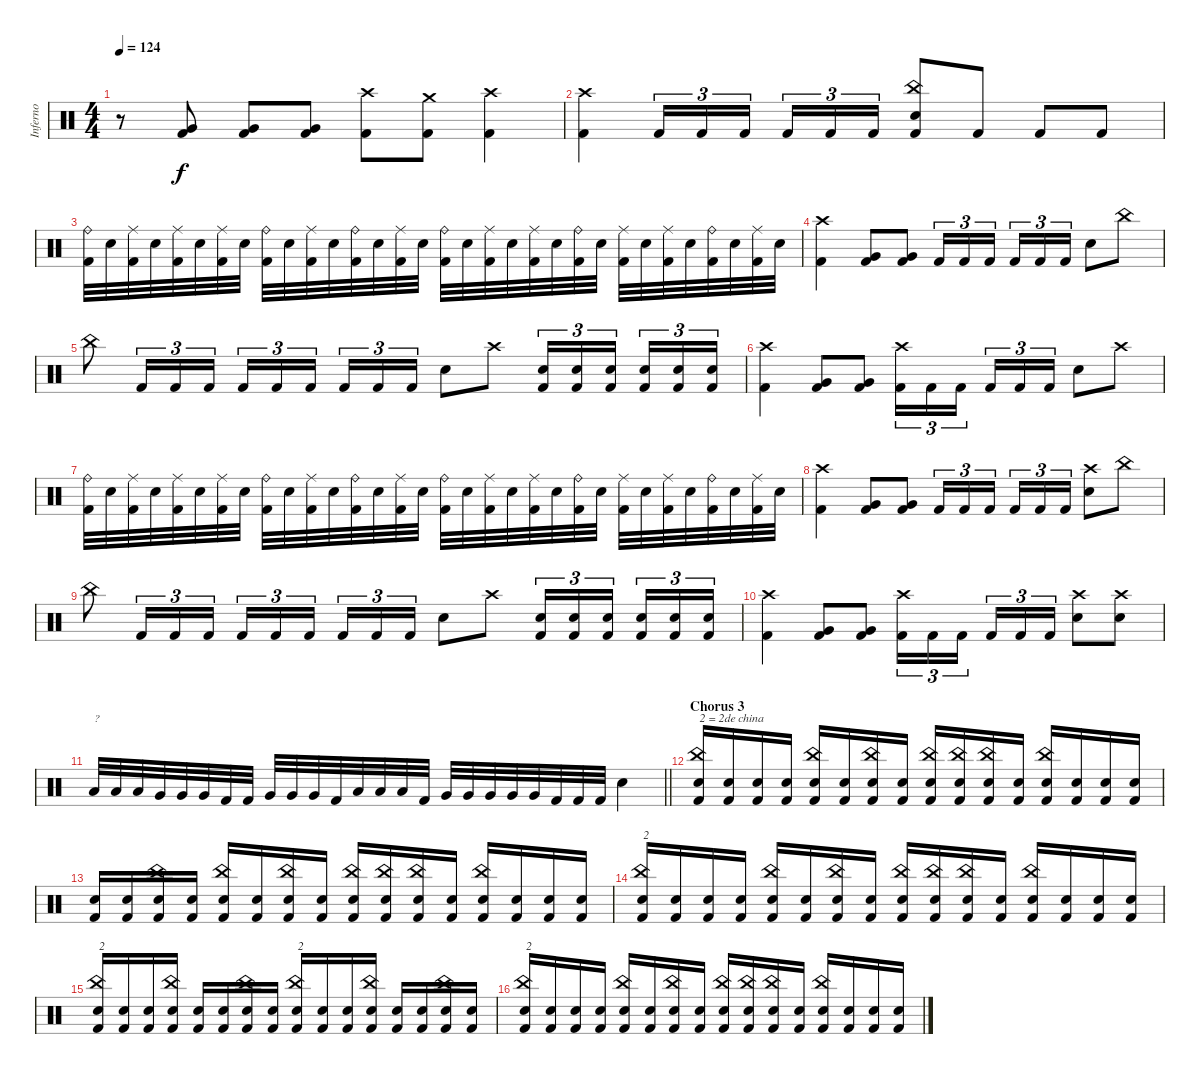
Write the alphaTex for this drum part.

\track ("Inferno" "Inferno") {instrument percussion}
\staff {score}
\articulation defaults
\ts (4 4)
\tempo 124
\clef neutral
\ks c
r.8{dy f} ("Very Low Tom (hit)" "Kick (hit) 2").8 ("Very Low Tom (hit)" "Kick (hit) 2").8 ("Very Low Tom (hit)" "Kick (hit) 2").8 ("Crash high (hit)" "Kick (hit) 2").8 ("Crash medium (hit)" "Kick (hit) 2").8 ("Crash high (hit)" "Kick (hit) 2").4 |
("Crash high (hit)" "Kick (hit) 2").4 "Kick (hit) 2".16{tu (3 2)} "Kick (hit) 2".16{tu (3 2)} "Kick (hit) 2".16{tu (3 2) beam splitsecondary} "Kick (hit) 2".16{tu (3 2)} "Kick (hit) 2".16{tu (3 2)} "Kick (hit) 2".16{tu (3 2)} ("China (hit)" "Electric Snare (hit)" "Kick (hit) 2").8 "Kick (hit) 2".8 "Kick (hit) 2".8 "Kick (hit) 2".8 |
("Ride (bell)" "Kick (hit) 2").32 "Electric Snare (hit)".32 ("Ride (middle)" "Kick (hit) 2").32 "Electric Snare (hit)".32 ("Ride (middle)" "Kick (hit) 2").32 "Electric Snare (hit)".32 ("Ride (middle)" "Kick (hit) 2").32 "Electric Snare (hit)".32 ("Ride (bell)" "Kick (hit) 2").32 "Electric Snare (hit)".32 ("Ride (middle)" "Kick (hit) 2").32 "Electric Snare (hit)".32 ("Ride (bell)" "Kick (hit) 2").32 "Electric Snare (hit)".32 ("Ride (middle)" "Kick (hit) 2").32 "Electric Snare (hit)".32 ("Ride (bell)" "Kick (hit) 2").32 "Electric Snare (hit)".32 ("Ride (middle)" "Kick (hit) 2").32 "Electric Snare (hit)".32 ("Ride (middle)" "Kick (hit) 2").32 "Electric Snare (hit)".32 ("Ride (bell)" "Kick (hit) 2").32 "Electric Snare (hit)".32 ("Ride (middle)" "Kick (hit) 2").32 "Electric Snare (hit)".32 ("Ride (middle)" "Kick (hit) 2").32 "Electric Snare (hit)".32 ("Ride (bell)" "Kick (hit) 2").32 "Electric Snare (hit)".32 ("Ride (middle)" "Kick (hit) 2").32 "Electric Snare (hit)".32 |
("Crash high (hit)" "Kick (hit) 2").4 ("Very Low Tom (hit)" "Kick (hit) 2").8 ("Very Low Tom (hit)" "Kick (hit) 2").8 "Kick (hit) 2".16{tu (3 2)} "Kick (hit) 2".16{tu (3 2)} "Kick (hit) 2".16{tu (3 2) beam splitsecondary} "Kick (hit) 2".16{tu (3 2)} "Kick (hit) 2".16{tu (3 2)} "Kick (hit) 2".16{tu (3 2)} "Electric Snare (hit)".8 "China (hit)".8 |
"China (hit)".8 "Kick (hit) 2".16{tu (3 2)} "Kick (hit) 2".16{tu (3 2)} "Kick (hit) 2".16{tu (3 2)} "Kick (hit) 2".16{tu (3 2)} "Kick (hit) 2".16{tu (3 2)} "Kick (hit) 2".16{tu (3 2) beam splitsecondary} "Kick (hit) 2".16{tu (3 2)} "Kick (hit) 2".16{tu (3 2)} "Kick (hit) 2".16{tu (3 2)} "Electric Snare (hit)".8 "Crash high (hit)".8 ("Electric Snare (hit)" "Kick (hit) 2").16{tu (3 2)} ("Electric Snare (hit)" "Kick (hit) 2").16{tu (3 2)} ("Electric Snare (hit)" "Kick (hit) 2").16{tu (3 2) beam splitsecondary} ("Electric Snare (hit)" "Kick (hit) 2").16{tu (3 2)} ("Electric Snare (hit)" "Kick (hit) 2").16{tu (3 2)} ("Electric Snare (hit)" "Kick (hit) 2").16{tu (3 2)} |
("Crash high (hit)" "Kick (hit) 2").4 ("Very Low Tom (hit)" "Kick (hit) 2").8 ("Very Low Tom (hit)" "Kick (hit) 2").8 ("Crash high (hit)" "Kick (hit) 2").16{tu (3 2)} "Kick (hit) 2".16{tu (3 2)} "Kick (hit) 2".16{tu (3 2) beam splitsecondary} "Kick (hit) 2".16{tu (3 2)} "Kick (hit) 2".16{tu (3 2)} "Kick (hit) 2".16{tu (3 2)} "Electric Snare (hit)".8 "Crash high (hit)".8 |
("Ride (bell)" "Kick (hit) 2").32 "Electric Snare (hit)".32 ("Ride (middle)" "Kick (hit) 2").32 "Electric Snare (hit)".32 ("Ride (middle)" "Kick (hit) 2").32 "Electric Snare (hit)".32 ("Ride (middle)" "Kick (hit) 2").32 "Electric Snare (hit)".32 ("Ride (bell)" "Kick (hit) 2").32 "Electric Snare (hit)".32 ("Ride (middle)" "Kick (hit) 2").32 "Electric Snare (hit)".32 ("Ride (bell)" "Kick (hit) 2").32 "Electric Snare (hit)".32 ("Ride (middle)" "Kick (hit) 2").32 "Electric Snare (hit)".32 ("Ride (bell)" "Kick (hit) 2").32 "Electric Snare (hit)".32 ("Ride (middle)" "Kick (hit) 2").32 "Electric Snare (hit)".32 ("Ride (middle)" "Kick (hit) 2").32 "Electric Snare (hit)".32 ("Ride (bell)" "Kick (hit) 2").32 "Electric Snare (hit)".32 ("Ride (middle)" "Kick (hit) 2").32 "Electric Snare (hit)".32 ("Ride (middle)" "Kick (hit) 2").32 "Electric Snare (hit)".32 ("Ride (bell)" "Kick (hit) 2").32 "Electric Snare (hit)".32 ("Ride (middle)" "Kick (hit) 2").32 "Electric Snare (hit)".32 |
("Crash high (hit)" "Kick (hit) 2").4 ("Very Low Tom (hit)" "Kick (hit) 2").8 ("Very Low Tom (hit)" "Kick (hit) 2").8 "Kick (hit) 2".16{tu (3 2)} "Kick (hit) 2".16{tu (3 2)} "Kick (hit) 2".16{tu (3 2) beam splitsecondary} "Kick (hit) 2".16{tu (3 2)} "Kick (hit) 2".16{tu (3 2)} "Kick (hit) 2".16{tu (3 2)} ("Crash high (hit)" "Electric Snare (hit)").8 "China (hit)".8 |
"China (hit)".8 "Kick (hit) 2".16{tu (3 2)} "Kick (hit) 2".16{tu (3 2)} "Kick (hit) 2".16{tu (3 2)} "Kick (hit) 2".16{tu (3 2)} "Kick (hit) 2".16{tu (3 2)} "Kick (hit) 2".16{tu (3 2) beam splitsecondary} "Kick (hit) 2".16{tu (3 2)} "Kick (hit) 2".16{tu (3 2)} "Kick (hit) 2".16{tu (3 2)} "Electric Snare (hit)".8 "Crash high (hit)".8 ("Electric Snare (hit)" "Kick (hit) 2").16{tu (3 2)} ("Electric Snare (hit)" "Kick (hit) 2").16{tu (3 2)} ("Electric Snare (hit)" "Kick (hit) 2").16{tu (3 2) beam splitsecondary} ("Electric Snare (hit)" "Kick (hit) 2").16{tu (3 2)} ("Electric Snare (hit)" "Kick (hit) 2").16{tu (3 2)} ("Electric Snare (hit)" "Kick (hit) 2").16{tu (3 2)} |
("Crash high (hit)" "Kick (hit) 2").4 ("Very Low Tom (hit)" "Kick (hit) 2").8 ("Very Low Tom (hit)" "Kick (hit) 2").8 ("Crash high (hit)" "Kick (hit) 2").16{tu (3 2)} "Kick (hit) 2".16{tu (3 2)} "Kick (hit) 2".16{tu (3 2) beam splitsecondary} "Kick (hit) 2".16{tu (3 2)} "Kick (hit) 2".16{tu (3 2)} "Kick (hit) 2".16{tu (3 2)} ("Crash high (hit)" "Electric Snare (hit)").8 ("Crash high (hit)" "Electric Snare (hit)").8 |
\barLineRight lightlight "Low Tom (hit)".32{txt "?"} "Low Tom (hit)".32 "Low Tom (hit)".32 "Very Low Tom (hit)".32 "Very Low Tom (hit)".32 "Very Low Tom (hit)".32 "Kick (hit) 2".32 "Kick (hit) 2".32 "Very Low Tom (hit)".32 "Very Low Tom (hit)".32 "Very Low Tom (hit)".32 "Kick (hit) 2".32 "Low Floor Tom (hit)".32 "Low Floor Tom (hit)".32 "Low Floor Tom (hit)".32 "Kick (hit) 2".32 "Very Low Tom (hit)".32 "Very Low Tom (hit)".32 "Very Low Tom (hit)".32 "Very Low Tom (hit)".32 "Very Low Tom (hit)".32 "Kick (hit) 2".32 "Kick (hit) 2".32 "Kick (hit) 2".32 "Electric Snare (hit)".4
|
\section ("" "Chorus 3")
("China (hit)" "Electric Snare (hit)" "Kick (hit) 2").16{txt "2 = 2de china"} ("Electric Snare (hit)" "Kick (hit) 2").16 ("Electric Snare (hit)" "Kick (hit) 2").16 ("Electric Snare (hit)" "Kick (hit) 2").16 ("China (hit)" "Electric Snare (hit)" "Kick (hit) 2").16 ("Electric Snare (hit)" "Kick (hit) 2").16 ("China (hit)" "Electric Snare (hit)" "Kick (hit) 2").16 ("Electric Snare (hit)" "Kick (hit) 2").16 ("China (hit)" "Electric Snare (hit)" "Kick (hit) 2").16 ("China (hit)" "Electric Snare (hit)" "Kick (hit) 2").16 ("China (hit)" "Electric Snare (hit)" "Kick (hit) 2").16 ("Electric Snare (hit)" "Kick (hit) 2").16 ("China (hit)" "Electric Snare (hit)" "Kick (hit) 2").16 ("Electric Snare (hit)" "Kick (hit) 2").16 ("Electric Snare (hit)" "Kick (hit) 2").16 ("Electric Snare (hit)" "Kick (hit) 2").16 |
("Electric Snare (hit)" "Kick (hit) 2").16 ("Electric Snare (hit)" "Kick (hit) 2").16 ("China (hit)" "Electric Snare (hit)" "Kick (hit) 2").16 ("Electric Snare (hit)" "Kick (hit) 2").16 ("China (hit)" "Electric Snare (hit)" "Kick (hit) 2").16 ("Electric Snare (hit)" "Kick (hit) 2").16 ("China (hit)" "Electric Snare (hit)" "Kick (hit) 2").16 ("Electric Snare (hit)" "Kick (hit) 2").16 ("China (hit)" "Electric Snare (hit)" "Kick (hit) 2").16 ("China (hit)" "Electric Snare (hit)" "Kick (hit) 2").16 ("China (hit)" "Electric Snare (hit)" "Kick (hit) 2").16 ("Electric Snare (hit)" "Kick (hit) 2").16 ("China (hit)" "Electric Snare (hit)" "Kick (hit) 2").16 ("Electric Snare (hit)" "Kick (hit) 2").16 ("Electric Snare (hit)" "Kick (hit) 2").16 ("Electric Snare (hit)" "Kick (hit) 2").16 |
("China (hit)" "Electric Snare (hit)" "Kick (hit) 2").16{txt "2"} ("Electric Snare (hit)" "Kick (hit) 2").16 ("Electric Snare (hit)" "Kick (hit) 2").16 ("Electric Snare (hit)" "Kick (hit) 2").16 ("China (hit)" "Electric Snare (hit)" "Kick (hit) 2").16 ("Electric Snare (hit)" "Kick (hit) 2").16 ("China (hit)" "Electric Snare (hit)" "Kick (hit) 2").16 ("Electric Snare (hit)" "Kick (hit) 2").16 ("China (hit)" "Electric Snare (hit)" "Kick (hit) 2").16 ("China (hit)" "Electric Snare (hit)" "Kick (hit) 2").16 ("China (hit)" "Electric Snare (hit)" "Kick (hit) 2").16 ("Electric Snare (hit)" "Kick (hit) 2").16 ("China (hit)" "Electric Snare (hit)" "Kick (hit) 2").16 ("Electric Snare (hit)" "Kick (hit) 2").16 ("Electric Snare (hit)" "Kick (hit) 2").16 ("Electric Snare (hit)" "Kick (hit) 2").16 |
("China (hit)" "Electric Snare (hit)" "Kick (hit) 2").16{txt "2"} ("Electric Snare (hit)" "Kick (hit) 2").16 ("Electric Snare (hit)" "Kick (hit) 2").16 ("China (hit)" "Electric Snare (hit)" "Kick (hit) 2").16 ("Electric Snare (hit)" "Kick (hit) 2").16 ("Electric Snare (hit)" "Kick (hit) 2").16 ("China (hit)" "Electric Snare (hit)" "Kick (hit) 2").16 ("Electric Snare (hit)" "Kick (hit) 2").16 ("China (hit)" "Electric Snare (hit)" "Kick (hit) 2").16{txt "2"} ("Electric Snare (hit)" "Kick (hit) 2").16 ("Electric Snare (hit)" "Kick (hit) 2").16 ("China (hit)" "Electric Snare (hit)" "Kick (hit) 2").16 ("Electric Snare (hit)" "Kick (hit) 2").16 ("Electric Snare (hit)" "Kick (hit) 2").16 ("China (hit)" "Electric Snare (hit)" "Kick (hit) 2").16 ("Electric Snare (hit)" "Kick (hit) 2").16 |
("China (hit)" "Electric Snare (hit)" "Kick (hit) 2").16{txt "2"} ("Electric Snare (hit)" "Kick (hit) 2").16 ("Electric Snare (hit)" "Kick (hit) 2").16 ("Electric Snare (hit)" "Kick (hit) 2").16 ("China (hit)" "Electric Snare (hit)" "Kick (hit) 2").16 ("Electric Snare (hit)" "Kick (hit) 2").16 ("China (hit)" "Electric Snare (hit)" "Kick (hit) 2").16 ("Electric Snare (hit)" "Kick (hit) 2").16 ("China (hit)" "Electric Snare (hit)" "Kick (hit) 2").16 ("China (hit)" "Electric Snare (hit)" "Kick (hit) 2").16 ("China (hit)" "Electric Snare (hit)" "Kick (hit) 2").16 ("Electric Snare (hit)" "Kick (hit) 2").16 ("China (hit)" "Electric Snare (hit)" "Kick (hit) 2").16 ("Electric Snare (hit)" "Kick (hit) 2").16 ("Electric Snare (hit)" "Kick (hit) 2").16 ("Electric Snare (hit)" "Kick (hit) 2").16
